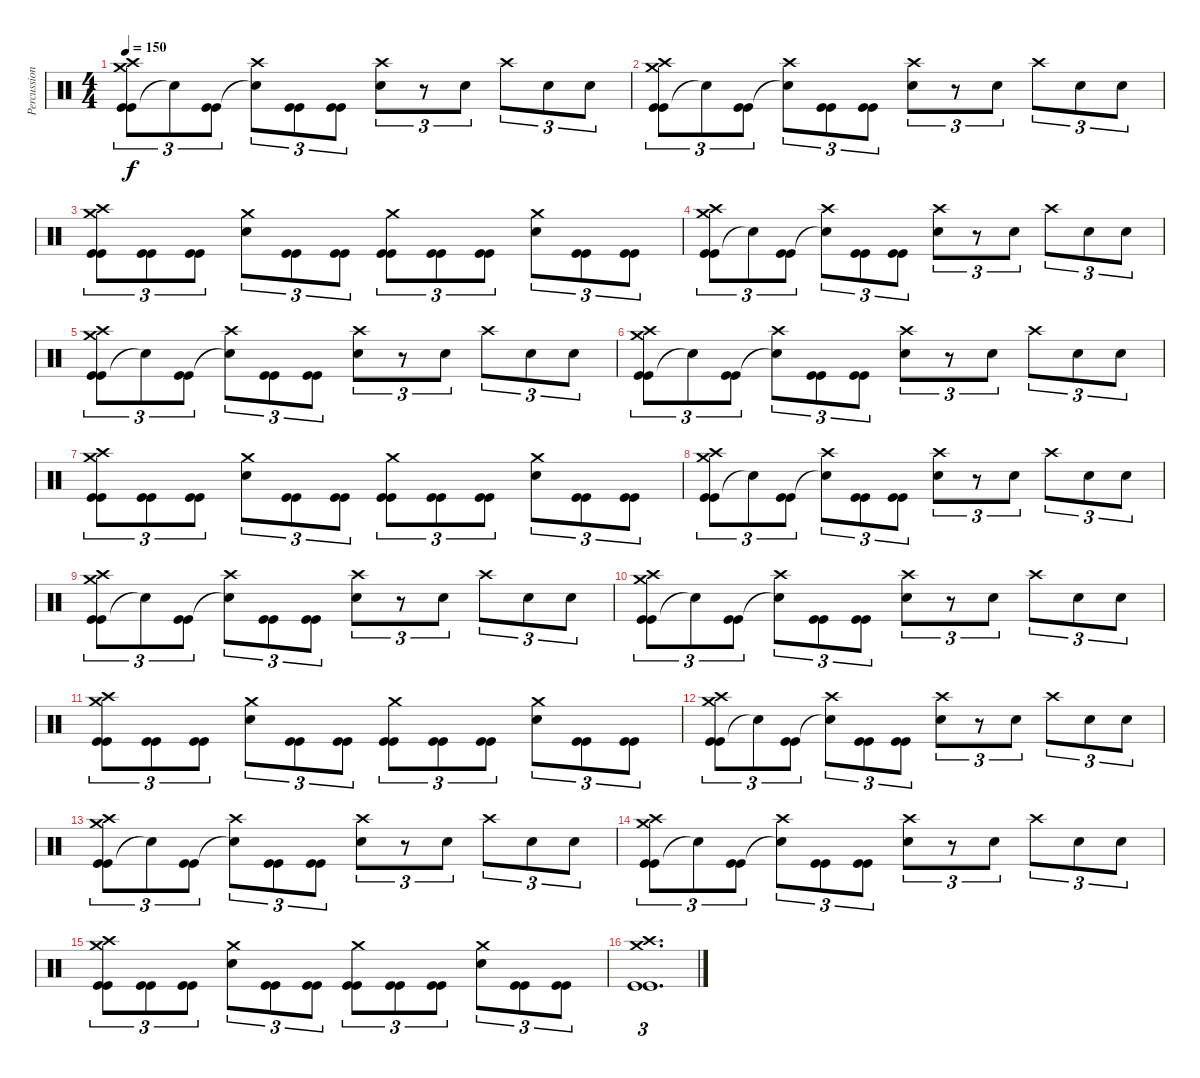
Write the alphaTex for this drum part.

\track ("Percussion" "Percussion") {instrument percussion}
\staff {score}
\articulation defaults
\ts (4 4)
\tempo 150
\clef neutral
\ks c
("Kick (hit)" "Crash medium (hit)" "Crash high (hit)" "Kick (hit)").8{tu (3 2) dy f} "Snare (hit)"{t}.8{tu (3 2)} ("Kick (hit)" "Kick (hit)").8{tu (3 2)} ("Crash high (hit)" "Snare (hit)"{t}).8{tu (3 2)} ("Kick (hit)" "Kick (hit)").8{tu (3 2)} ("Kick (hit)" "Kick (hit)").8{tu (3 2)} ("Crash high (hit)" "Snare (hit) 2").8{tu (3 2)} r.8{tu (3 2)} "Snare (hit) 2".8{tu (3 2)} "Crash high (hit)".8{tu (3 2)} "Snare (hit) 2".8{tu (3 2)} "Snare (hit) 2".8{tu (3 2)} |
("Kick (hit)" "Crash medium (hit)" "Crash high (hit)" "Kick (hit)").8{tu (3 2)} "Snare (hit)"{t}.8{tu (3 2)} ("Kick (hit)" "Kick (hit)").8{tu (3 2)} ("Crash high (hit)" "Snare (hit)"{t}).8{tu (3 2)} ("Kick (hit)" "Kick (hit)").8{tu (3 2)} ("Kick (hit)" "Kick (hit)").8{tu (3 2)} ("Crash high (hit)" "Snare (hit) 2").8{tu (3 2)} r.8{tu (3 2)} "Snare (hit) 2".8{tu (3 2)} "Crash high (hit)".8{tu (3 2)} "Snare (hit) 2".8{tu (3 2)} "Snare (hit) 2".8{tu (3 2)} |
("Crash medium (hit)" "Crash high (hit)" "Kick (hit)" "Kick (hit)").8{tu (3 2)} ("Kick (hit)" "Kick (hit)").8{tu (3 2)} ("Kick (hit)" "Kick (hit)").8{tu (3 2)} ("Crash medium (hit)" "Snare (hit) 2").8{tu (3 2)} ("Kick (hit)" "Kick (hit)").8{tu (3 2)} ("Kick (hit)" "Kick (hit)").8{tu (3 2)} ("Crash medium (hit)" "Kick (hit)" "Kick (hit)").8{tu (3 2)} ("Kick (hit)" "Kick (hit)").8{tu (3 2)} ("Kick (hit)" "Kick (hit)").8{tu (3 2)} ("Crash medium (hit)" "Snare (hit) 2").8{tu (3 2)} ("Kick (hit)" "Kick (hit)").8{tu (3 2)} ("Kick (hit)" "Kick (hit)").8{tu (3 2)} |
("Kick (hit)" "Crash medium (hit)" "Crash high (hit)" "Kick (hit)").8{tu (3 2)} "Snare (hit)"{t}.8{tu (3 2)} ("Kick (hit)" "Kick (hit)").8{tu (3 2)} ("Crash high (hit)" "Snare (hit)"{t}).8{tu (3 2)} ("Kick (hit)" "Kick (hit)").8{tu (3 2)} ("Kick (hit)" "Kick (hit)").8{tu (3 2)} ("Crash high (hit)" "Snare (hit) 2").8{tu (3 2)} r.8{tu (3 2)} "Snare (hit) 2".8{tu (3 2)} "Crash high (hit)".8{tu (3 2)} "Snare (hit) 2".8{tu (3 2)} "Snare (hit) 2".8{tu (3 2)} |
("Kick (hit)" "Crash medium (hit)" "Crash high (hit)" "Kick (hit)").8{tu (3 2)} "Snare (hit)"{t}.8{tu (3 2)} ("Kick (hit)" "Kick (hit)").8{tu (3 2)} ("Crash high (hit)" "Snare (hit)"{t}).8{tu (3 2)} ("Kick (hit)" "Kick (hit)").8{tu (3 2)} ("Kick (hit)" "Kick (hit)").8{tu (3 2)} ("Crash high (hit)" "Snare (hit) 2").8{tu (3 2)} r.8{tu (3 2)} "Snare (hit) 2".8{tu (3 2)} "Crash high (hit)".8{tu (3 2)} "Snare (hit) 2".8{tu (3 2)} "Snare (hit) 2".8{tu (3 2)} |
("Kick (hit)" "Crash medium (hit)" "Crash high (hit)" "Kick (hit)").8{tu (3 2)} "Snare (hit)"{t}.8{tu (3 2)} ("Kick (hit)" "Kick (hit)").8{tu (3 2)} ("Crash high (hit)" "Snare (hit)"{t}).8{tu (3 2)} ("Kick (hit)" "Kick (hit)").8{tu (3 2)} ("Kick (hit)" "Kick (hit)").8{tu (3 2)} ("Crash high (hit)" "Snare (hit) 2").8{tu (3 2)} r.8{tu (3 2)} "Snare (hit) 2".8{tu (3 2)} "Crash high (hit)".8{tu (3 2)} "Snare (hit) 2".8{tu (3 2)} "Snare (hit) 2".8{tu (3 2)} |
("Crash medium (hit)" "Crash high (hit)" "Kick (hit)" "Kick (hit)").8{tu (3 2)} ("Kick (hit)" "Kick (hit)").8{tu (3 2)} ("Kick (hit)" "Kick (hit)").8{tu (3 2)} ("Crash medium (hit)" "Snare (hit) 2").8{tu (3 2)} ("Kick (hit)" "Kick (hit)").8{tu (3 2)} ("Kick (hit)" "Kick (hit)").8{tu (3 2)} ("Crash medium (hit)" "Kick (hit)" "Kick (hit)").8{tu (3 2)} ("Kick (hit)" "Kick (hit)").8{tu (3 2)} ("Kick (hit)" "Kick (hit)").8{tu (3 2)} ("Crash medium (hit)" "Snare (hit) 2").8{tu (3 2)} ("Kick (hit)" "Kick (hit)").8{tu (3 2)} ("Kick (hit)" "Kick (hit)").8{tu (3 2)} |
("Kick (hit)" "Crash medium (hit)" "Crash high (hit)" "Kick (hit)").8{tu (3 2)} "Snare (hit)"{t}.8{tu (3 2)} ("Kick (hit)" "Kick (hit)").8{tu (3 2)} ("Crash high (hit)" "Snare (hit)"{t}).8{tu (3 2)} ("Kick (hit)" "Kick (hit)").8{tu (3 2)} ("Kick (hit)" "Kick (hit)").8{tu (3 2)} ("Crash high (hit)" "Snare (hit) 2").8{tu (3 2)} r.8{tu (3 2)} "Snare (hit) 2".8{tu (3 2)} "Crash high (hit)".8{tu (3 2)} "Snare (hit) 2".8{tu (3 2)} "Snare (hit) 2".8{tu (3 2)} |
("Kick (hit)" "Crash medium (hit)" "Crash high (hit)" "Kick (hit)").8{tu (3 2)} "Snare (hit)"{t}.8{tu (3 2)} ("Kick (hit)" "Kick (hit)").8{tu (3 2)} ("Crash high (hit)" "Snare (hit)"{t}).8{tu (3 2)} ("Kick (hit)" "Kick (hit)").8{tu (3 2)} ("Kick (hit)" "Kick (hit)").8{tu (3 2)} ("Crash high (hit)" "Snare (hit) 2").8{tu (3 2)} r.8{tu (3 2)} "Snare (hit) 2".8{tu (3 2)} "Crash high (hit)".8{tu (3 2)} "Snare (hit) 2".8{tu (3 2)} "Snare (hit) 2".8{tu (3 2)} |
("Kick (hit)" "Crash medium (hit)" "Crash high (hit)" "Kick (hit)").8{tu (3 2)} "Snare (hit)"{t}.8{tu (3 2)} ("Kick (hit)" "Kick (hit)").8{tu (3 2)} ("Crash high (hit)" "Snare (hit)"{t}).8{tu (3 2)} ("Kick (hit)" "Kick (hit)").8{tu (3 2)} ("Kick (hit)" "Kick (hit)").8{tu (3 2)} ("Crash high (hit)" "Snare (hit) 2").8{tu (3 2)} r.8{tu (3 2)} "Snare (hit) 2".8{tu (3 2)} "Crash high (hit)".8{tu (3 2)} "Snare (hit) 2".8{tu (3 2)} "Snare (hit) 2".8{tu (3 2)} |
("Crash medium (hit)" "Crash high (hit)" "Kick (hit)" "Kick (hit)").8{tu (3 2)} ("Kick (hit)" "Kick (hit)").8{tu (3 2)} ("Kick (hit)" "Kick (hit)").8{tu (3 2)} ("Crash medium (hit)" "Snare (hit) 2").8{tu (3 2)} ("Kick (hit)" "Kick (hit)").8{tu (3 2)} ("Kick (hit)" "Kick (hit)").8{tu (3 2)} ("Crash medium (hit)" "Kick (hit)" "Kick (hit)").8{tu (3 2)} ("Kick (hit)" "Kick (hit)").8{tu (3 2)} ("Kick (hit)" "Kick (hit)").8{tu (3 2)} ("Crash medium (hit)" "Snare (hit) 2").8{tu (3 2)} ("Kick (hit)" "Kick (hit)").8{tu (3 2)} ("Kick (hit)" "Kick (hit)").8{tu (3 2)} |
("Kick (hit)" "Crash medium (hit)" "Crash high (hit)" "Kick (hit)").8{tu (3 2)} "Snare (hit)"{t}.8{tu (3 2)} ("Kick (hit)" "Kick (hit)").8{tu (3 2)} ("Crash high (hit)" "Snare (hit)"{t}).8{tu (3 2)} ("Kick (hit)" "Kick (hit)").8{tu (3 2)} ("Kick (hit)" "Kick (hit)").8{tu (3 2)} ("Crash high (hit)" "Snare (hit) 2").8{tu (3 2)} r.8{tu (3 2)} "Snare (hit) 2".8{tu (3 2)} "Crash high (hit)".8{tu (3 2)} "Snare (hit) 2".8{tu (3 2)} "Snare (hit) 2".8{tu (3 2)} |
("Kick (hit)" "Crash medium (hit)" "Crash high (hit)" "Kick (hit)").8{tu (3 2)} "Snare (hit)"{t}.8{tu (3 2)} ("Kick (hit)" "Kick (hit)").8{tu (3 2)} ("Crash high (hit)" "Snare (hit)"{t}).8{tu (3 2)} ("Kick (hit)" "Kick (hit)").8{tu (3 2)} ("Kick (hit)" "Kick (hit)").8{tu (3 2)} ("Crash high (hit)" "Snare (hit) 2").8{tu (3 2)} r.8{tu (3 2)} "Snare (hit) 2".8{tu (3 2)} "Crash high (hit)".8{tu (3 2)} "Snare (hit) 2".8{tu (3 2)} "Snare (hit) 2".8{tu (3 2)} |
("Kick (hit)" "Crash medium (hit)" "Crash high (hit)" "Kick (hit)").8{tu (3 2)} "Snare (hit)"{t}.8{tu (3 2)} ("Kick (hit)" "Kick (hit)").8{tu (3 2)} ("Crash high (hit)" "Snare (hit)"{t}).8{tu (3 2)} ("Kick (hit)" "Kick (hit)").8{tu (3 2)} ("Kick (hit)" "Kick (hit)").8{tu (3 2)} ("Crash high (hit)" "Snare (hit) 2").8{tu (3 2)} r.8{tu (3 2)} "Snare (hit) 2".8{tu (3 2)} "Crash high (hit)".8{tu (3 2)} "Snare (hit) 2".8{tu (3 2)} "Snare (hit) 2".8{tu (3 2)} |
("Crash medium (hit)" "Crash high (hit)" "Kick (hit)" "Kick (hit)").8{tu (3 2)} ("Kick (hit)" "Kick (hit)").8{tu (3 2)} ("Kick (hit)" "Kick (hit)").8{tu (3 2)} ("Crash medium (hit)" "Snare (hit) 2").8{tu (3 2)} ("Kick (hit)" "Kick (hit)").8{tu (3 2)} ("Kick (hit)" "Kick (hit)").8{tu (3 2)} ("Crash medium (hit)" "Kick (hit)" "Kick (hit)").8{tu (3 2)} ("Kick (hit)" "Kick (hit)").8{tu (3 2)} ("Kick (hit)" "Kick (hit)").8{tu (3 2)} ("Crash medium (hit)" "Snare (hit) 2").8{tu (3 2)} ("Kick (hit)" "Kick (hit)").8{tu (3 2)} ("Kick (hit)" "Kick (hit)").8{tu (3 2)} |
("Crash high (hit)" "Crash medium (hit)" "Kick (hit)" "Kick (hit)").1{d tu (3 2)}
